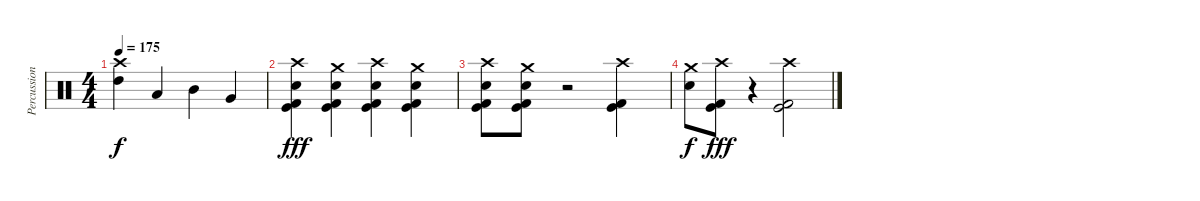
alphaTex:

\track ("Percussion" "Percussion") {instrument percussion}
\staff {score}
\articulation defaults
\ts (4 4)
\tempo 175
\clef neutral
\ks c
("Crash high (hit)" "High Tom (hit)").4{dy f} "Low Tom (hit)".4 "Mid Tom (hit)".4 "Very Low Tom (hit)".4 |
("Crash high (hit)" "Electric Snare (hit)" "Kick (hit)" "Kick (hit) 2").4{dy fff} ("Crash medium (hit)" "Electric Snare (hit)" "Kick (hit)" "Kick (hit) 2").4 ("Crash high (hit)" "Electric Snare (hit)" "Kick (hit)" "Kick (hit) 2").4 ("Crash medium (hit)" "Electric Snare (hit)" "Kick (hit)" "Kick (hit) 2").4 |
("Crash high (hit)" "Electric Snare (hit)" "Kick (hit)" "Kick (hit) 2").8 ("Crash medium (hit)" "Electric Snare (hit)" "Kick (hit)" "Kick (hit) 2").8 r.2 ("Crash high (hit)" "Kick (hit)" "Kick (hit) 2").4 |
("Crash medium (hit)" "Electric Snare (hit)").8{dy f} ("Crash high (hit)" "Kick (hit)" "Kick (hit) 2").8{dy fff} r.4 ("Crash high (hit)" "Kick (hit)" "Kick (hit) 2").2
